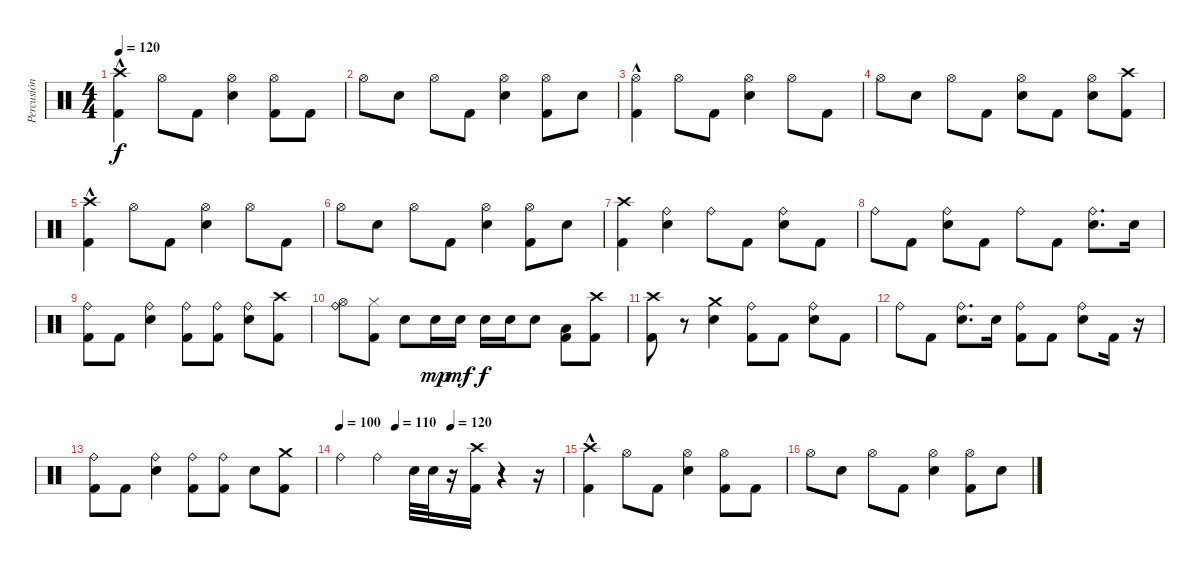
\track ("Percusión" "Percusión") {instrument percussion}
\staff {score}
\articulation defaults
\ts (4 4)
\tempo 120
\clef neutral
\ks c
("Crash high (hit)" "Kick (hit) 2"{hac}).4{dy f} "Hi-Hat (open)".8 "Kick (hit) 2".8 ("Hi-Hat (open)" "Electric Snare (hit)").4 ("Hi-Hat (open)" "Kick (hit) 2").8 "Kick (hit) 2".8 |
"Hi-Hat (open)".8 "Electric Snare (hit)".8 "Hi-Hat (open)".8 "Kick (hit) 2".8 ("Electric Snare (hit)" "Hi-Hat (open)").4 ("Hi-Hat (open)" "Kick (hit) 2").8 "Electric Snare (hit)".8 |
("Kick (hit) 2"{hac} "Hi-Hat (open)").4 "Hi-Hat (open)".8 "Kick (hit) 2".8 ("Hi-Hat (open)" "Electric Snare (hit)").4 "Hi-Hat (open)".8 "Kick (hit) 2".8 |
"Hi-Hat (open)".8 "Electric Snare (hit)".8 "Hi-Hat (open)".8 "Kick (hit) 2".8 ("Electric Snare (hit)" "Hi-Hat (open)").8 "Kick (hit) 2".8 ("Electric Snare (hit)" "Hi-Hat (open)").8 ("Kick (hit) 2" "Crash high (hit)").8 |
("Kick (hit) 2"{hac} "Crash high (hit)").4 "Hi-Hat (open)".8 "Kick (hit) 2".8 ("Electric Snare (hit)" "Hi-Hat (open)").4 "Hi-Hat (open)".8 "Kick (hit) 2".8 |
"Hi-Hat (open)".8 "Electric Snare (hit)".8 "Hi-Hat (open)".8 "Kick (hit) 2".8 ("Electric Snare (hit)" "Hi-Hat (open)").4 ("Kick (hit) 2" "Hi-Hat (open)").8 "Electric Snare (hit)".8 |
("Kick (hit) 2" "Crash high (hit)").4 ("Electric Snare (hit)" "Ride (bell)").4 "Ride (bell)".8 "Kick (hit) 2".8 ("Electric Snare (hit)" "Ride (bell)").8 "Kick (hit) 2".8 |
"Ride (bell)".8 "Kick (hit) 2".8 ("Electric Snare (hit)" "Ride (bell)").8 "Kick (hit) 2".8 "Ride (bell)".8 "Kick (hit) 2".8 ("Electric Snare (hit)" "Ride (bell)").8{d} "Electric Snare (hit)".16 |
("Kick (hit) 2" "Ride (bell)").8 "Kick (hit) 2".8 ("Electric Snare (hit)" "Ride (bell)").4 ("Kick (hit) 2" "Ride (bell)").8 ("Kick (hit) 2" "Ride (bell)").8 ("Ride (bell)" "Electric Snare (hit)").8 ("Crash high (hit)" "Kick (hit) 2").8 |
("Ride (bell)" "Hi-Hat (open)").8 ("Kick (hit) 2" "Hi-Hat (closed)").8 "Electric Snare (hit)".8 "Electric Snare (hit)".16{dy mp} "Electric Snare (hit)".16{dy mf} "Electric Snare (hit)".16{dy f} "Electric Snare (hit)".16 "Electric Snare (hit)".8 ("Kick (hit) 2" "Low Tom (hit)").8 ("Kick (hit) 2" "Crash high (hit)").8 |
("Kick (hit) 2" "Crash high (hit)").8 r.8 ("Electric Snare (hit)" "Crash medium (hit)").4 ("Ride (bell)" "Kick (hit) 2").8 "Kick (hit) 2".8 ("Electric Snare (hit)" "Ride (bell)").8 "Kick (hit) 2".8 |
"Ride (bell)".8 "Kick (hit) 2".8 ("Electric Snare (hit)" "Ride (bell)").8{d} "Electric Snare (hit)".16 ("Ride (bell)" "Kick (hit) 2").8 "Kick (hit) 2".8 ("Electric Snare (hit)" "Ride (bell)").8 "Kick (hit) 2".16 r.16 |
("Kick (hit) 2" "Ride (bell)").8 "Kick (hit) 2".8 ("Electric Snare (hit)" "Ride (bell)").4 ("Kick (hit) 2" "Ride (bell)").8 ("Kick (hit) 2" "Ride (bell)").8 "Electric Snare (hit)".8 ("Kick (hit) 2" "Crash medium (hit)").8 |
\tempo 100
\tempo (110 0.25)
\tempo (120 0.5)
"Ride (bell)".4 "Ride (bell)".4 "Electric Snare (hit)".32 "Electric Snare (hit)".32 r.16 ("Kick (hit) 2" "Crash high (hit)").16 r.4 r.16 |
("Crash high (hit)" "Kick (hit) 2"{hac}).4 "Hi-Hat (open)".8 "Kick (hit) 2".8 ("Hi-Hat (open)" "Electric Snare (hit)").4 ("Hi-Hat (open)" "Kick (hit) 2").8 "Kick (hit) 2".8 |
"Hi-Hat (open)".8 "Electric Snare (hit)".8 "Hi-Hat (open)".8 "Kick (hit) 2".8 ("Electric Snare (hit)" "Hi-Hat (open)").4 ("Hi-Hat (open)" "Kick (hit) 2").8 "Electric Snare (hit)".8
